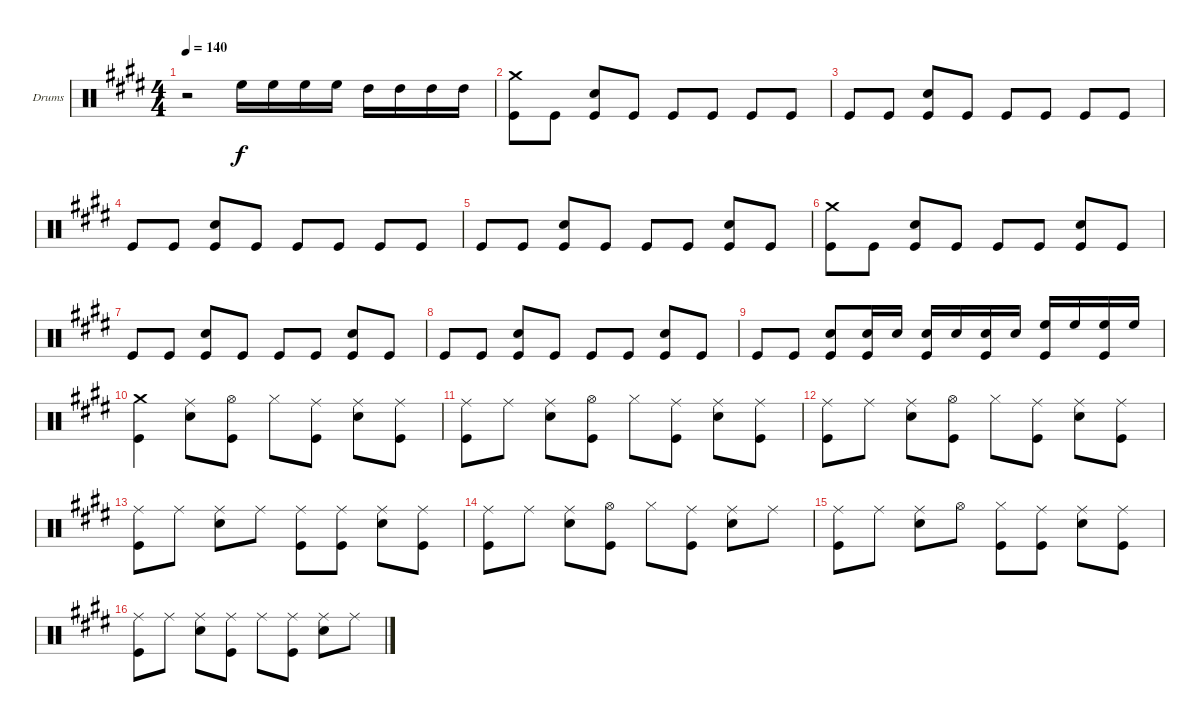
\bracketExtendMode groupsimilarinstruments
\firstSystemTrackNameOrientation horizontal
\otherSystemsTrackNameOrientation horizontal
\track ("Drumkit" "Drums") {instrument percussion}
\staff {score}
\articulation defaults
\ts (4 4)
\tempo 140
\clef neutral
\ks e
r.2{dy f} "High Floor Tom (hit)".16 "High Floor Tom (hit)".16 "High Floor Tom (hit)".16 "High Floor Tom (hit)".16 "High Tom (hit)".16 "High Tom (hit)".16 "High Tom (hit)".16 "High Tom (hit)".16 |
("Crash medium (hit)" "Kick (hit)").8 "Kick (hit)".8 ("Snare (hit) 2" "Kick (hit)").8 "Kick (hit)".8 "Kick (hit)".8 "Kick (hit)".8 "Kick (hit)".8 "Kick (hit)".8 |
"Kick (hit)".8 "Kick (hit)".8 ("Snare (hit) 2" "Kick (hit)").8 "Kick (hit)".8 "Kick (hit)".8 "Kick (hit)".8 "Kick (hit)".8 "Kick (hit)".8 |
"Kick (hit)".8 "Kick (hit)".8 ("Snare (hit) 2" "Kick (hit)").8 "Kick (hit)".8 "Kick (hit)".8 "Kick (hit)".8 "Kick (hit)".8 "Kick (hit)".8 |
"Kick (hit)".8 "Kick (hit)".8 ("Snare (hit) 2" "Kick (hit)").8 "Kick (hit)".8 "Kick (hit)".8 "Kick (hit)".8 ("Snare (hit) 2" "Kick (hit)").8 "Kick (hit)".8 |
("Crash medium (hit)" "Kick (hit)").8 "Kick (hit)".8 ("Snare (hit) 2" "Kick (hit)").8 "Kick (hit)".8 "Kick (hit)".8 "Kick (hit)".8 ("Snare (hit) 2" "Kick (hit)").8 "Kick (hit)".8 |
"Kick (hit)".8 "Kick (hit)".8 ("Snare (hit) 2" "Kick (hit)").8 "Kick (hit)".8 "Kick (hit)".8 "Kick (hit)".8 ("Snare (hit) 2" "Kick (hit)").8 "Kick (hit)".8 |
"Kick (hit)".8 "Kick (hit)".8 ("Snare (hit) 2" "Kick (hit)").8 "Kick (hit)".8 "Kick (hit)".8 "Kick (hit)".8 ("Snare (hit) 2" "Kick (hit)").8 "Kick (hit)".8 |
"Kick (hit)".8 "Kick (hit)".8 ("Snare (hit) 2" "Kick (hit)").8 ("Snare (hit) 2" "Kick (hit)").16 "Snare (hit) 2".16 ("Snare (hit) 2" "Kick (hit)").16 "Snare (hit) 2".16 ("Snare (hit) 2" "Kick (hit)").16 "Snare (hit) 2".16 ("High Floor Tom (hit)" "Kick (hit)").16 "High Floor Tom (hit)".16 ("High Floor Tom (hit)" "Kick (hit)").16 "High Floor Tom (hit)".16 |
("Crash medium (hit)" "Kick (hit)").4 ("Ride (middle)" "Snare (hit) 2").8 ("Hi-Hat (open)" "Kick (hit)").8 "Hi-Hat (closed)".8 ("Ride (middle)" "Kick (hit)").8 ("Ride (middle)" "Snare (hit) 2").8 ("Ride (middle)" "Kick (hit)").8 |
("Ride (middle)" "Kick (hit)").8 "Ride (middle)".8 ("Ride (middle)" "Snare (hit) 2").8 ("Hi-Hat (open)" "Kick (hit)").8 "Hi-Hat (closed)".8 ("Ride (middle)" "Kick (hit)").8 ("Ride (middle)" "Snare (hit) 2").8 ("Ride (middle)" "Kick (hit)").8 |
("Ride (middle)" "Kick (hit)").8 "Ride (middle)".8 ("Ride (middle)" "Snare (hit) 2").8 ("Hi-Hat (open)" "Kick (hit)").8 "Hi-Hat (closed)".8 ("Ride (middle)" "Kick (hit)").8 ("Ride (middle)" "Snare (hit) 2").8 ("Ride (middle)" "Kick (hit)").8 |
("Ride (middle)" "Kick (hit)").8 "Ride (middle)".8 ("Ride (middle)" "Snare (hit) 2").8 "Ride (middle)".8 ("Ride (middle)" "Kick (hit)").8 ("Ride (middle)" "Kick (hit)").8 ("Ride (middle)" "Snare (hit) 2").8 ("Ride (middle)" "Kick (hit)").8 |
("Ride (middle)" "Kick (hit)").8 "Ride (middle)".8 ("Ride (middle)" "Snare (hit) 2").8 ("Hi-Hat (open)" "Kick (hit)").8 "Hi-Hat (closed)".8 ("Ride (middle)" "Kick (hit)").8 ("Ride (middle)" "Snare (hit) 2").8 "Ride (middle)".8 |
("Ride (middle)" "Kick (hit)").8 "Ride (middle)".8 ("Ride (middle)" "Snare (hit) 2").8 "Hi-Hat (open)".8 ("Hi-Hat (closed)" "Kick (hit)").8 ("Ride (middle)" "Kick (hit)").8 ("Ride (middle)" "Snare (hit) 2").8 ("Ride (middle)" "Kick (hit)").8 |
("Ride (middle)" "Kick (hit)").8 "Ride (middle)".8 ("Ride (middle)" "Snare (hit) 2").8 ("Ride (middle)" "Kick (hit)").8 "Ride (middle)".8 ("Ride (middle)" "Kick (hit)").8 ("Ride (middle)" "Snare (hit) 2").8 "Ride (middle)".8
